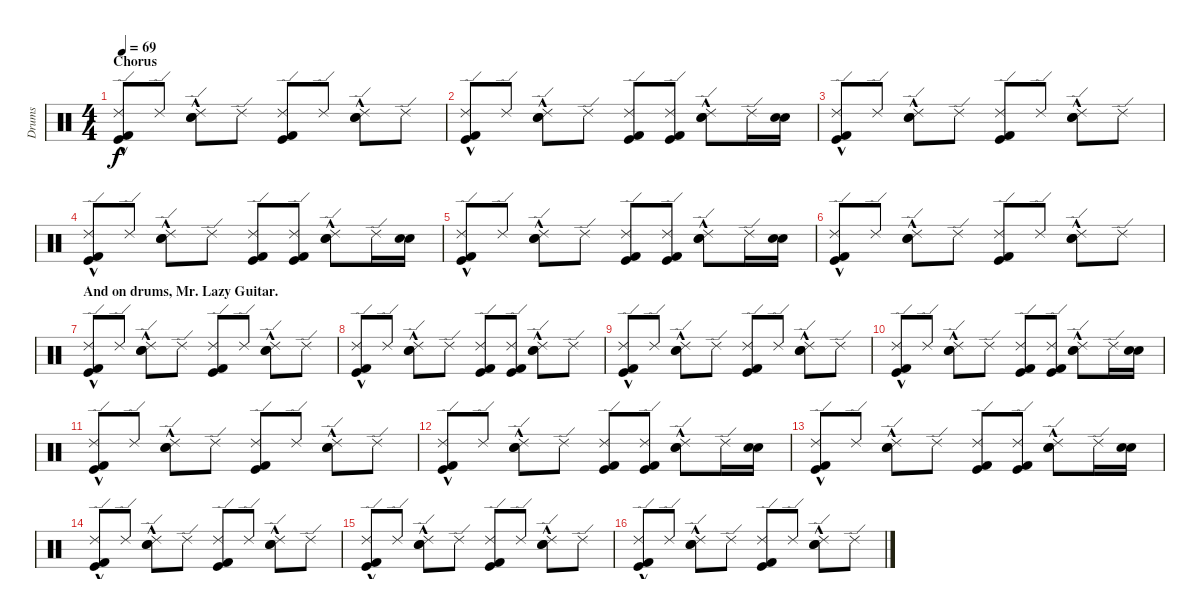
\track ("Drums" "Drums") {instrument percussion}
\staff {score}
\articulation defaults
\ts (4 4)
\section ("" "Chorus")
\tempo 69
\clef neutral
\ks c
("Ride (edge) 2"{hac} "Kick (hit) 2" "Kick (hit)").8{dy f} "Ride (edge) 2".8 ("Ride (edge) 2"{hac} "Snare (hit) 2" "Electric Snare (hit)").8 "Ride (edge) 2".8 ("Ride (edge) 2" "Kick (hit) 2" "Kick (hit)").8 "Ride (edge) 2".8 ("Ride (edge) 2"{hac} "Snare (hit) 2" "Electric Snare (hit)").8 "Ride (edge) 2".8 |
("Ride (edge) 2"{hac} "Kick (hit) 2" "Kick (hit)").8 "Ride (edge) 2".8 ("Ride (edge) 2"{hac} "Snare (hit) 2" "Electric Snare (hit)").8 "Ride (edge) 2".8 ("Ride (edge) 2" "Kick (hit) 2" "Kick (hit)").8 ("Ride (edge) 2" "Kick (hit) 2" "Kick (hit)").8 ("Ride (edge) 2"{hac} "Snare (hit) 2" "Electric Snare (hit)").8 "Ride (edge) 2".16 ("Snare (hit) 2" "Electric Snare (hit)").16 |
("Ride (edge) 2"{hac} "Kick (hit) 2" "Kick (hit)").8 "Ride (edge) 2".8 ("Ride (edge) 2"{hac} "Snare (hit) 2" "Electric Snare (hit)").8 "Ride (edge) 2".8 ("Ride (edge) 2" "Kick (hit) 2" "Kick (hit)").8 "Ride (edge) 2".8 ("Ride (edge) 2"{hac} "Snare (hit) 2" "Electric Snare (hit)").8 "Ride (edge) 2".8 |
("Ride (edge) 2"{hac} "Kick (hit) 2" "Kick (hit)").8 "Ride (edge) 2".8 ("Ride (edge) 2"{hac} "Snare (hit) 2" "Electric Snare (hit)").8 "Ride (edge) 2".8 ("Ride (edge) 2" "Kick (hit) 2" "Kick (hit)").8 ("Ride (edge) 2" "Kick (hit) 2" "Kick (hit)").8 ("Ride (edge) 2"{hac} "Snare (hit) 2" "Electric Snare (hit)").8 "Ride (edge) 2".16 ("Snare (hit) 2" "Electric Snare (hit)").16 |
("Ride (edge) 2"{hac} "Kick (hit) 2" "Kick (hit)").8 "Ride (edge) 2".8 ("Ride (edge) 2"{hac} "Snare (hit) 2" "Electric Snare (hit)").8 "Ride (edge) 2".8 ("Ride (edge) 2" "Kick (hit) 2" "Kick (hit)").8 ("Ride (edge) 2" "Kick (hit) 2" "Kick (hit)").8 ("Ride (edge) 2"{hac} "Snare (hit) 2" "Electric Snare (hit)").8 "Ride (edge) 2".16 ("Snare (hit) 2" "Electric Snare (hit)").16 |
("Ride (edge) 2"{hac} "Kick (hit) 2" "Kick (hit)").8 "Ride (edge) 2".8 ("Ride (edge) 2"{hac} "Snare (hit) 2" "Electric Snare (hit)").8 "Ride (edge) 2".8 ("Ride (edge) 2" "Kick (hit) 2" "Kick (hit)").8 "Ride (edge) 2".8 ("Ride (edge) 2"{hac} "Snare (hit) 2" "Electric Snare (hit)").8 "Ride (edge) 2".8 |
\section ("" "And on drums, Mr. Lazy Guitar.")
("Ride (edge) 2"{hac} "Kick (hit) 2" "Kick (hit)").8 "Ride (edge) 2".8 ("Ride (edge) 2"{hac} "Snare (hit) 2" "Electric Snare (hit)").8 "Ride (edge) 2".8 ("Ride (edge) 2" "Kick (hit) 2" "Kick (hit)").8 "Ride (edge) 2".8 ("Ride (edge) 2"{hac} "Snare (hit) 2" "Electric Snare (hit)").8 "Ride (edge) 2".8 |
("Ride (edge) 2"{hac} "Kick (hit) 2" "Kick (hit)").8 "Ride (edge) 2".8 ("Ride (edge) 2"{hac} "Snare (hit) 2" "Electric Snare (hit)").8 "Ride (edge) 2".8 ("Ride (edge) 2" "Kick (hit) 2" "Kick (hit)").8 ("Ride (edge) 2" "Kick (hit) 2" "Kick (hit)").8 ("Ride (edge) 2"{hac} "Snare (hit) 2" "Electric Snare (hit)").8 "Ride (edge) 2".8 |
("Ride (edge) 2"{hac} "Kick (hit) 2" "Kick (hit)").8 "Ride (edge) 2".8 ("Ride (edge) 2"{hac} "Snare (hit) 2" "Electric Snare (hit)").8 "Ride (edge) 2".8 ("Ride (edge) 2" "Kick (hit) 2" "Kick (hit)").8 "Ride (edge) 2".8 ("Ride (edge) 2"{hac} "Snare (hit) 2" "Electric Snare (hit)").8 "Ride (edge) 2".8 |
("Ride (edge) 2"{hac} "Kick (hit) 2" "Kick (hit)").8 "Ride (edge) 2".8 ("Ride (edge) 2"{hac} "Snare (hit) 2" "Electric Snare (hit)").8 "Ride (edge) 2".8 ("Ride (edge) 2" "Kick (hit) 2" "Kick (hit)").8 ("Ride (edge) 2" "Kick (hit) 2" "Kick (hit)").8 ("Ride (edge) 2"{hac} "Snare (hit) 2" "Electric Snare (hit)").8 "Ride (edge) 2".16 ("Snare (hit) 2" "Electric Snare (hit)").16 |
("Ride (edge) 2"{hac} "Kick (hit) 2" "Kick (hit)").8 "Ride (edge) 2".8 ("Ride (edge) 2"{hac} "Snare (hit) 2" "Electric Snare (hit)").8 "Ride (edge) 2".8 ("Ride (edge) 2" "Kick (hit) 2" "Kick (hit)").8 "Ride (edge) 2".8 ("Ride (edge) 2"{hac} "Snare (hit) 2" "Electric Snare (hit)").8 "Ride (edge) 2".8 |
("Ride (edge) 2"{hac} "Kick (hit) 2" "Kick (hit)").8 "Ride (edge) 2".8 ("Ride (edge) 2"{hac} "Snare (hit) 2" "Electric Snare (hit)").8 "Ride (edge) 2".8 ("Ride (edge) 2" "Kick (hit) 2" "Kick (hit)").8 ("Ride (edge) 2" "Kick (hit) 2" "Kick (hit)").8 ("Ride (edge) 2"{hac} "Snare (hit) 2" "Electric Snare (hit)").8 "Ride (edge) 2".16 ("Snare (hit) 2" "Electric Snare (hit)").16 |
("Ride (edge) 2"{hac} "Kick (hit) 2" "Kick (hit)").8 "Ride (edge) 2".8 ("Ride (edge) 2"{hac} "Snare (hit) 2" "Electric Snare (hit)").8 "Ride (edge) 2".8 ("Ride (edge) 2" "Kick (hit) 2" "Kick (hit)").8 ("Ride (edge) 2" "Kick (hit) 2" "Kick (hit)").8 ("Ride (edge) 2"{hac} "Snare (hit) 2" "Electric Snare (hit)").8 "Ride (edge) 2".16 ("Snare (hit) 2" "Electric Snare (hit)").16 |
("Ride (edge) 2"{hac} "Kick (hit) 2" "Kick (hit)").8 "Ride (edge) 2".8 ("Ride (edge) 2"{hac} "Snare (hit) 2" "Electric Snare (hit)").8 "Ride (edge) 2".8 ("Ride (edge) 2" "Kick (hit) 2" "Kick (hit)").8 "Ride (edge) 2".8 ("Ride (edge) 2"{hac} "Snare (hit) 2" "Electric Snare (hit)").8 "Ride (edge) 2".8 |
("Ride (edge) 2"{hac} "Kick (hit) 2" "Kick (hit)").8 "Ride (edge) 2".8 ("Ride (edge) 2"{hac} "Snare (hit) 2" "Electric Snare (hit)").8 "Ride (edge) 2".8 ("Ride (edge) 2" "Kick (hit) 2" "Kick (hit)").8 "Ride (edge) 2".8 ("Ride (edge) 2"{hac} "Snare (hit) 2" "Electric Snare (hit)").8 "Ride (edge) 2".8 |
("Ride (edge) 2"{hac} "Kick (hit) 2" "Kick (hit)").8 "Ride (edge) 2".8 ("Ride (edge) 2"{hac} "Snare (hit) 2" "Electric Snare (hit)").8 "Ride (edge) 2".8 ("Ride (edge) 2" "Kick (hit) 2" "Kick (hit)").8 "Ride (edge) 2".8 ("Ride (edge) 2"{hac} "Snare (hit) 2" "Electric Snare (hit)").8 "Ride (edge) 2".8
